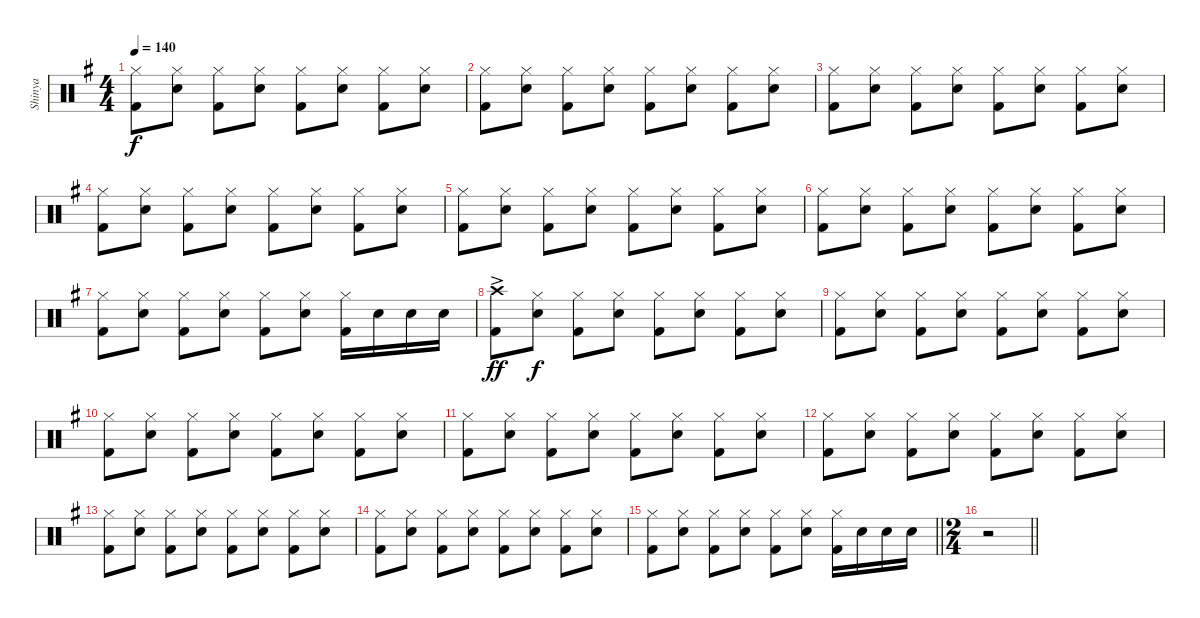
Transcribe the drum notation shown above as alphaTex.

\track ("Shinya" "Shinya") {instrument percussion}
\staff {score}
\articulation defaults
\ts (4 4)
\tempo 140
\clef neutral
\ks g
("Hi-Hat (closed)" "Kick (hit) 2").8{dy f} ("Hi-Hat (closed)" "Snare (hit) 2").8 ("Hi-Hat (closed)" "Kick (hit) 2").8 ("Hi-Hat (closed)" "Snare (hit) 2").8 ("Hi-Hat (closed)" "Kick (hit) 2").8 ("Hi-Hat (closed)" "Snare (hit) 2").8 ("Hi-Hat (closed)" "Kick (hit) 2").8 ("Hi-Hat (closed)" "Snare (hit) 2").8 |
("Hi-Hat (closed)" "Kick (hit) 2").8 ("Hi-Hat (closed)" "Snare (hit) 2").8 ("Hi-Hat (closed)" "Kick (hit) 2").8 ("Hi-Hat (closed)" "Snare (hit) 2").8 ("Hi-Hat (closed)" "Kick (hit) 2").8 ("Hi-Hat (closed)" "Snare (hit) 2").8 ("Hi-Hat (closed)" "Kick (hit) 2").8 ("Hi-Hat (closed)" "Snare (hit) 2").8 |
("Hi-Hat (closed)" "Kick (hit) 2").8 ("Hi-Hat (closed)" "Snare (hit) 2").8 ("Hi-Hat (closed)" "Kick (hit) 2").8 ("Hi-Hat (closed)" "Snare (hit) 2").8 ("Hi-Hat (closed)" "Kick (hit) 2").8 ("Hi-Hat (closed)" "Snare (hit) 2").8 ("Hi-Hat (closed)" "Kick (hit) 2").8 ("Hi-Hat (closed)" "Snare (hit) 2").8 |
("Hi-Hat (closed)" "Kick (hit) 2").8 ("Hi-Hat (closed)" "Snare (hit) 2").8 ("Hi-Hat (closed)" "Kick (hit) 2").8 ("Hi-Hat (closed)" "Snare (hit) 2").8 ("Hi-Hat (closed)" "Kick (hit) 2").8 ("Hi-Hat (closed)" "Snare (hit) 2").8 ("Hi-Hat (closed)" "Kick (hit) 2").8 ("Hi-Hat (closed)" "Snare (hit) 2").8 |
("Hi-Hat (closed)" "Kick (hit) 2").8 ("Hi-Hat (closed)" "Snare (hit) 2").8 ("Hi-Hat (closed)" "Kick (hit) 2").8 ("Hi-Hat (closed)" "Snare (hit) 2").8 ("Hi-Hat (closed)" "Kick (hit) 2").8 ("Hi-Hat (closed)" "Snare (hit) 2").8 ("Hi-Hat (closed)" "Kick (hit) 2").8 ("Hi-Hat (closed)" "Snare (hit) 2").8 |
("Hi-Hat (closed)" "Kick (hit) 2").8 ("Hi-Hat (closed)" "Snare (hit) 2").8 ("Hi-Hat (closed)" "Kick (hit) 2").8 ("Hi-Hat (closed)" "Snare (hit) 2").8 ("Hi-Hat (closed)" "Kick (hit) 2").8 ("Hi-Hat (closed)" "Snare (hit) 2").8 ("Hi-Hat (closed)" "Kick (hit) 2").8 ("Hi-Hat (closed)" "Snare (hit) 2").8 |
("Hi-Hat (closed)" "Kick (hit) 2").8 ("Hi-Hat (closed)" "Snare (hit) 2").8 ("Hi-Hat (closed)" "Kick (hit) 2").8 ("Hi-Hat (closed)" "Snare (hit) 2").8 ("Hi-Hat (closed)" "Kick (hit) 2").8 ("Hi-Hat (closed)" "Snare (hit) 2").8 ("Hi-Hat (closed)" "Kick (hit) 2").16 "Snare (hit) 2".16 "Snare (hit) 2".16 "Snare (hit) 2".16 |
("Crash high (hit)"{ac} "Kick (hit) 2").8{dy ff} ("Hi-Hat (closed)" "Snare (hit) 2").8{dy f} ("Hi-Hat (closed)" "Kick (hit) 2").8 ("Hi-Hat (closed)" "Snare (hit) 2").8 ("Hi-Hat (closed)" "Kick (hit) 2").8 ("Hi-Hat (closed)" "Snare (hit) 2").8 ("Hi-Hat (closed)" "Kick (hit) 2").8 ("Hi-Hat (closed)" "Snare (hit) 2").8 |
("Hi-Hat (closed)" "Kick (hit) 2").8 ("Hi-Hat (closed)" "Snare (hit) 2").8 ("Hi-Hat (closed)" "Kick (hit) 2").8 ("Hi-Hat (closed)" "Snare (hit) 2").8 ("Hi-Hat (closed)" "Kick (hit) 2").8 ("Hi-Hat (closed)" "Snare (hit) 2").8 ("Hi-Hat (closed)" "Kick (hit) 2").8 ("Hi-Hat (closed)" "Snare (hit) 2").8 |
("Hi-Hat (closed)" "Kick (hit) 2").8 ("Hi-Hat (closed)" "Snare (hit) 2").8 ("Hi-Hat (closed)" "Kick (hit) 2").8 ("Hi-Hat (closed)" "Snare (hit) 2").8 ("Hi-Hat (closed)" "Kick (hit) 2").8 ("Hi-Hat (closed)" "Snare (hit) 2").8 ("Hi-Hat (closed)" "Kick (hit) 2").8 ("Hi-Hat (closed)" "Snare (hit) 2").8 |
("Hi-Hat (closed)" "Kick (hit) 2").8 ("Hi-Hat (closed)" "Snare (hit) 2").8 ("Hi-Hat (closed)" "Kick (hit) 2").8 ("Hi-Hat (closed)" "Snare (hit) 2").8 ("Hi-Hat (closed)" "Kick (hit) 2").8 ("Hi-Hat (closed)" "Snare (hit) 2").8 ("Hi-Hat (closed)" "Kick (hit) 2").8 ("Hi-Hat (closed)" "Snare (hit) 2").8 |
("Hi-Hat (closed)" "Kick (hit) 2").8 ("Hi-Hat (closed)" "Snare (hit) 2").8 ("Hi-Hat (closed)" "Kick (hit) 2").8 ("Hi-Hat (closed)" "Snare (hit) 2").8 ("Hi-Hat (closed)" "Kick (hit) 2").8 ("Hi-Hat (closed)" "Snare (hit) 2").8 ("Hi-Hat (closed)" "Kick (hit) 2").8 ("Hi-Hat (closed)" "Snare (hit) 2").8 |
("Hi-Hat (closed)" "Kick (hit) 2").8 ("Hi-Hat (closed)" "Snare (hit) 2").8 ("Hi-Hat (closed)" "Kick (hit) 2").8 ("Hi-Hat (closed)" "Snare (hit) 2").8 ("Hi-Hat (closed)" "Kick (hit) 2").8 ("Hi-Hat (closed)" "Snare (hit) 2").8 ("Hi-Hat (closed)" "Kick (hit) 2").8 ("Hi-Hat (closed)" "Snare (hit) 2").8 |
("Hi-Hat (closed)" "Kick (hit) 2").8 ("Hi-Hat (closed)" "Snare (hit) 2").8 ("Hi-Hat (closed)" "Kick (hit) 2").8 ("Hi-Hat (closed)" "Snare (hit) 2").8 ("Hi-Hat (closed)" "Kick (hit) 2").8 ("Hi-Hat (closed)" "Snare (hit) 2").8 ("Hi-Hat (closed)" "Kick (hit) 2").8 ("Hi-Hat (closed)" "Snare (hit) 2").8 |
\barLineRight lightlight
("Hi-Hat (closed)" "Kick (hit) 2").8 ("Hi-Hat (closed)" "Snare (hit) 2").8 ("Hi-Hat (closed)" "Kick (hit) 2").8 ("Hi-Hat (closed)" "Snare (hit) 2").8 ("Hi-Hat (closed)" "Kick (hit) 2").8 ("Hi-Hat (closed)" "Snare (hit) 2").8 ("Hi-Hat (closed)" "Kick (hit) 2").16 "Snare (hit) 2".16 "Snare (hit) 2".16 "Snare (hit) 2".16 |
\ts (2 4)
\barLineRight lightlight
r.2
